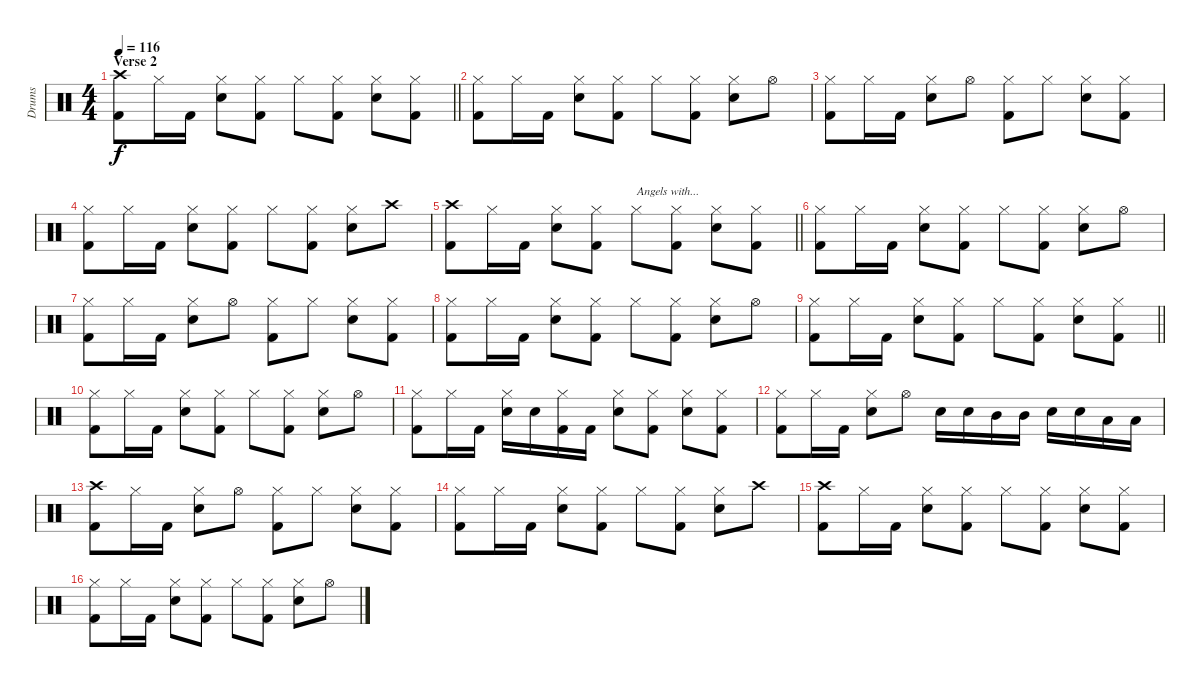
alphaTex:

\track ("Drums" "Drums") {instrument percussion}
\staff {score}
\articulation defaults
\ts (4 4)
\section ("" "Verse 2")
\tempo 116
\clef neutral
\barLineRight lightlight
\ks c
("Crash high (hit)" "Kick (hit) 2").8{dy f} "Hi-Hat (closed)".16 "Kick (hit) 2".16 ("Hi-Hat (closed)" "Snare (hit) 2").8 ("Hi-Hat (closed)" "Kick (hit) 2").8 "Hi-Hat (closed)".8 ("Hi-Hat (closed)" "Kick (hit) 2").8 ("Hi-Hat (closed)" "Snare (hit) 2").8 ("Hi-Hat (closed)" "Kick (hit) 2").8 |
\section ("" "")
("Hi-Hat (closed)" "Kick (hit) 2").8 "Hi-Hat (closed)".16 "Kick (hit) 2".16 ("Hi-Hat (closed)" "Snare (hit) 2").8 ("Hi-Hat (closed)" "Kick (hit) 2").8 "Hi-Hat (closed)".8 ("Hi-Hat (closed)" "Kick (hit) 2").8 ("Hi-Hat (closed)" "Snare (hit) 2").8 "Hi-Hat (open)".8 |
("Hi-Hat (closed)" "Kick (hit) 2").8 "Hi-Hat (closed)".16 "Kick (hit) 2".16 ("Hi-Hat (closed)" "Snare (hit) 2").8 "Hi-Hat (open)".8 ("Hi-Hat (closed)" "Kick (hit) 2").8 "Hi-Hat (closed)".8 ("Hi-Hat (closed)" "Snare (hit) 2").8 ("Hi-Hat (closed)" "Kick (hit) 2").8 |
("Hi-Hat (closed)" "Kick (hit) 2").8 "Hi-Hat (closed)".16 "Kick (hit) 2".16 ("Hi-Hat (closed)" "Snare (hit) 2").8 ("Hi-Hat (closed)" "Kick (hit) 2").8 "Hi-Hat (closed)".8 ("Hi-Hat (closed)" "Kick (hit) 2").8 ("Hi-Hat (closed)" "Snare (hit) 2").8 "Crash high (hit)".8 |
\barLineRight lightlight
("Crash high (hit)" "Kick (hit) 2").8 "Hi-Hat (closed)".16 "Kick (hit) 2".16 ("Hi-Hat (closed)" "Snare (hit) 2").8 ("Hi-Hat (closed)" "Kick (hit) 2").8 "Hi-Hat (closed)".8{txt "Angels with..."} ("Hi-Hat (closed)" "Kick (hit) 2").8 ("Hi-Hat (closed)" "Snare (hit) 2").8 ("Hi-Hat (closed)" "Kick (hit) 2").8 |
("Hi-Hat (closed)" "Kick (hit) 2").8 "Hi-Hat (closed)".16 "Kick (hit) 2".16 ("Hi-Hat (closed)" "Snare (hit) 2").8 ("Hi-Hat (closed)" "Kick (hit) 2").8 "Hi-Hat (closed)".8 ("Hi-Hat (closed)" "Kick (hit) 2").8 ("Hi-Hat (closed)" "Snare (hit) 2").8 "Hi-Hat (open)".8 |
("Hi-Hat (closed)" "Kick (hit) 2").8 "Hi-Hat (closed)".16 "Kick (hit) 2".16 ("Hi-Hat (closed)" "Snare (hit) 2").8 "Hi-Hat (open)".8 ("Hi-Hat (closed)" "Kick (hit) 2").8 "Hi-Hat (closed)".8 ("Hi-Hat (closed)" "Snare (hit) 2").8 ("Hi-Hat (closed)" "Kick (hit) 2").8 |
("Hi-Hat (closed)" "Kick (hit) 2").8 "Hi-Hat (closed)".16 "Kick (hit) 2".16 ("Hi-Hat (closed)" "Snare (hit) 2").8 ("Hi-Hat (closed)" "Kick (hit) 2").8 "Hi-Hat (closed)".8 ("Hi-Hat (closed)" "Kick (hit) 2").8 ("Hi-Hat (closed)" "Snare (hit) 2").8 "Hi-Hat (open)".8 |
\barLineRight lightlight
("Hi-Hat (closed)" "Kick (hit) 2").8 "Hi-Hat (closed)".16 "Kick (hit) 2".16 ("Hi-Hat (closed)" "Snare (hit) 2").8 ("Hi-Hat (closed)" "Kick (hit) 2").8 "Hi-Hat (closed)".8 ("Hi-Hat (closed)" "Kick (hit) 2").8 ("Hi-Hat (closed)" "Snare (hit) 2").8 ("Hi-Hat (closed)" "Kick (hit) 2").8 |
("Hi-Hat (closed)" "Kick (hit) 2").8 "Hi-Hat (closed)".16 "Kick (hit) 2".16 ("Hi-Hat (closed)" "Snare (hit) 2").8 ("Hi-Hat (closed)" "Kick (hit) 2").8 "Hi-Hat (closed)".8 ("Hi-Hat (closed)" "Kick (hit) 2").8 ("Hi-Hat (closed)" "Snare (hit) 2").8 "Hi-Hat (open)".8 |
("Hi-Hat (closed)" "Kick (hit) 2").8 "Hi-Hat (closed)".16 "Kick (hit) 2".16 ("Hi-Hat (closed)" "Snare (hit) 2").16 "Snare (hit) 2".16 ("Hi-Hat (closed)" "Kick (hit) 2").16 "Kick (hit) 2".16 ("Hi-Hat (closed)" "Snare (hit) 2").8 ("Hi-Hat (closed)" "Kick (hit) 2").8 ("Hi-Hat (closed)" "Snare (hit) 2").8 ("Hi-Hat (closed)" "Kick (hit) 2").8 |
("Hi-Hat (closed)" "Kick (hit) 2").8 "Hi-Hat (closed)".16 "Kick (hit) 2".16 ("Hi-Hat (closed)" "Snare (hit) 2").8 "Hi-Hat (open)".8 "Snare (hit) 2".16 "Snare (hit) 2".16 "Mid Tom (hit)".16 "Mid Tom (hit)".16 "Snare (hit) 2".16 "Snare (hit) 2".16 "Low Floor Tom (hit)".16 "Low Floor Tom (hit)".16 |
("Crash high (hit)" "Kick (hit) 2").8 "Hi-Hat (closed)".16 "Kick (hit) 2".16 ("Hi-Hat (closed)" "Snare (hit) 2").8 "Hi-Hat (open)".8 ("Hi-Hat (closed)" "Kick (hit) 2").8 "Hi-Hat (closed)".8 ("Hi-Hat (closed)" "Snare (hit) 2").8 ("Hi-Hat (closed)" "Kick (hit) 2").8 |
("Hi-Hat (closed)" "Kick (hit) 2").8 "Hi-Hat (closed)".16 "Kick (hit) 2".16 ("Hi-Hat (closed)" "Snare (hit) 2").8 ("Hi-Hat (closed)" "Kick (hit) 2").8 "Hi-Hat (closed)".8 ("Hi-Hat (closed)" "Kick (hit) 2").8 ("Hi-Hat (closed)" "Snare (hit) 2").8 "Crash high (hit)".8 |
("Crash high (hit)" "Kick (hit) 2").8 "Hi-Hat (closed)".16 "Kick (hit) 2".16 ("Hi-Hat (closed)" "Snare (hit) 2").8 ("Hi-Hat (closed)" "Kick (hit) 2").8 "Hi-Hat (closed)".8 ("Hi-Hat (closed)" "Kick (hit) 2").8 ("Hi-Hat (closed)" "Snare (hit) 2").8 ("Hi-Hat (closed)" "Kick (hit) 2").8 |
("Hi-Hat (closed)" "Kick (hit) 2").8 "Hi-Hat (closed)".16 "Kick (hit) 2".16 ("Hi-Hat (closed)" "Snare (hit) 2").8 ("Hi-Hat (closed)" "Kick (hit) 2").8 "Hi-Hat (closed)".8 ("Hi-Hat (closed)" "Kick (hit) 2").8 ("Hi-Hat (closed)" "Snare (hit) 2").8 "Hi-Hat (open)".8
